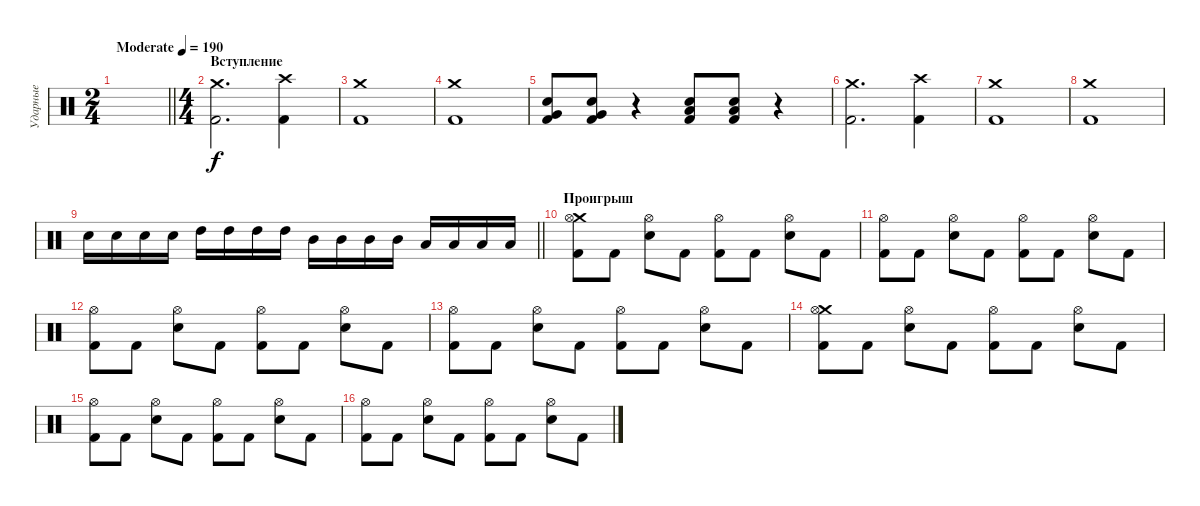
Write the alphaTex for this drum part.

\track ("Ударные" "Ударные") {instrument percussion}
\staff {score}
\articulation defaults
\ts (2 4)
\tempo (190 "Moderate")
\clef neutral
\barLineRight lightlight
\ks c
|
\ts (4 4)
\section ("" "Вступление")
("Crash medium (hit)" "Kick (hit) 2").2{d} ("Crash high (hit)" "Kick (hit) 2").4 |
("Crash medium (hit)" "Kick (hit) 2").1 |
("Crash medium (hit)" "Kick (hit) 2").1 |
("Kick (hit) 2" "Very Low Tom (hit)" "Electric Snare (hit)").8 ("Kick (hit) 2" "Very Low Tom (hit)" "Electric Snare (hit)").8 r.4 ("Kick (hit) 2" "Low Floor Tom (hit)" "Electric Snare (hit)").8 ("Kick (hit) 2" "Low Floor Tom (hit)" "Electric Snare (hit)").8 r.4 |
("Crash medium (hit)" "Kick (hit) 2").2{d} ("Crash high (hit)" "Kick (hit) 2").4 |
("Crash medium (hit)" "Kick (hit) 2").1 |
("Crash medium (hit)" "Kick (hit) 2").1 |
\barLineRight lightlight "Electric Snare (hit)".16 "Electric Snare (hit)".16 "Electric Snare (hit)".16 "Electric Snare (hit)".16 "High Tom (hit)".16 "High Tom (hit)".16 "High Tom (hit)".16 "High Tom (hit)".16 "Mid Tom (hit)".16 "Mid Tom (hit)".16 "Mid Tom (hit)".16 "Mid Tom (hit)".16 "Low Tom (hit)".16 "Low Tom (hit)".16 "Low Tom (hit)".16 "Low Tom (hit)".16
|
\section ("" "Проигрыш")
("Crash medium (hit)" "Kick (hit) 2" "Hi-Hat (open)").8 "Kick (hit) 2".8 ("Electric Snare (hit)" "Hi-Hat (open)").8 "Kick (hit) 2".8 ("Kick (hit) 2" "Hi-Hat (open)").8 "Kick (hit) 2".8 ("Electric Snare (hit)" "Hi-Hat (open)").8 "Kick (hit) 2".8 |
("Kick (hit) 2" "Hi-Hat (open)").8 "Kick (hit) 2".8 ("Electric Snare (hit)" "Hi-Hat (open)").8 "Kick (hit) 2".8 ("Kick (hit) 2" "Hi-Hat (open)").8 "Kick (hit) 2".8 ("Electric Snare (hit)" "Hi-Hat (open)").8 "Kick (hit) 2".8 |
("Kick (hit) 2" "Hi-Hat (open)").8 "Kick (hit) 2".8 ("Electric Snare (hit)" "Hi-Hat (open)").8 "Kick (hit) 2".8 ("Kick (hit) 2" "Hi-Hat (open)").8 "Kick (hit) 2".8 ("Electric Snare (hit)" "Hi-Hat (open)").8 "Kick (hit) 2".8 |
("Kick (hit) 2" "Hi-Hat (open)").8 "Kick (hit) 2".8 ("Electric Snare (hit)" "Hi-Hat (open)").8 "Kick (hit) 2".8 ("Kick (hit) 2" "Hi-Hat (open)").8 "Kick (hit) 2".8 ("Electric Snare (hit)" "Hi-Hat (open)").8 "Kick (hit) 2".8 |
("Crash medium (hit)" "Kick (hit) 2" "Hi-Hat (open)").8 "Kick (hit) 2".8 ("Electric Snare (hit)" "Hi-Hat (open)").8 "Kick (hit) 2".8 ("Kick (hit) 2" "Hi-Hat (open)").8 "Kick (hit) 2".8 ("Electric Snare (hit)" "Hi-Hat (open)").8 "Kick (hit) 2".8 |
("Kick (hit) 2" "Hi-Hat (open)").8 "Kick (hit) 2".8 ("Electric Snare (hit)" "Hi-Hat (open)").8 "Kick (hit) 2".8 ("Kick (hit) 2" "Hi-Hat (open)").8 "Kick (hit) 2".8 ("Electric Snare (hit)" "Hi-Hat (open)").8 "Kick (hit) 2".8 |
("Kick (hit) 2" "Hi-Hat (open)").8 "Kick (hit) 2".8 ("Electric Snare (hit)" "Hi-Hat (open)").8 "Kick (hit) 2".8 ("Kick (hit) 2" "Hi-Hat (open)").8 "Kick (hit) 2".8 ("Electric Snare (hit)" "Hi-Hat (open)").8 "Kick (hit) 2".8
